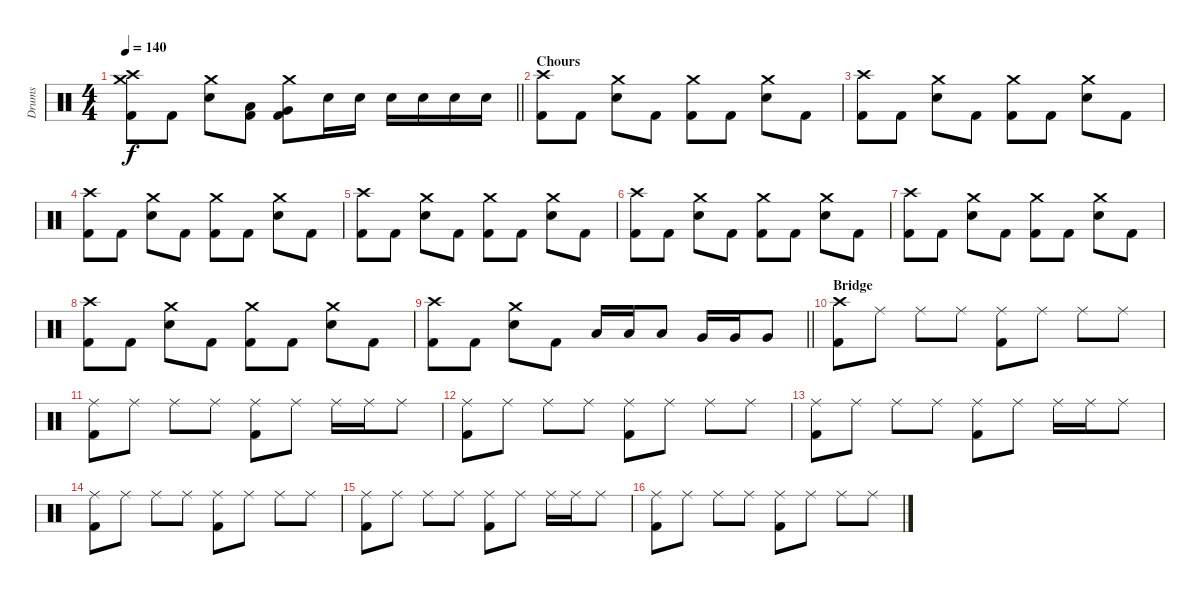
\track ("Drums" "Drums") {instrument percussion}
\staff {score}
\articulation defaults
\ts (4 4)
\tempo 140
\clef neutral
\barLineRight lightlight
\ks c
("Crash high (hit)" "Crash medium (hit)" "Kick (hit) 2").8{dy f} "Kick (hit) 2".8 ("Crash medium (hit)" "Snare (hit) 2").8 ("Low Tom (hit)" "Kick (hit) 2").8 ("Crash medium (hit)" "Very Low Tom (hit)" "Kick (hit) 2").8 "Snare (hit) 2".16 "Snare (hit) 2".16 "Snare (hit) 2".16 "Snare (hit) 2".16 "Snare (hit) 2".16 "Snare (hit) 2".16 |
\section ("" "Chours")
("Crash high (hit)" "Kick (hit) 2").8 "Kick (hit) 2".8 ("Crash medium (hit)" "Snare (hit) 2").8 "Kick (hit) 2".8 ("Crash medium (hit)" "Kick (hit) 2").8 "Kick (hit) 2".8 ("Crash medium (hit)" "Snare (hit) 2").8 "Kick (hit) 2".8 |
("Crash high (hit)" "Kick (hit) 2").8 "Kick (hit) 2".8 ("Crash medium (hit)" "Snare (hit) 2").8 "Kick (hit) 2".8 ("Crash medium (hit)" "Kick (hit) 2").8 "Kick (hit) 2".8 ("Crash medium (hit)" "Snare (hit) 2").8 "Kick (hit) 2".8 |
("Crash high (hit)" "Kick (hit) 2").8 "Kick (hit) 2".8 ("Crash medium (hit)" "Snare (hit) 2").8 "Kick (hit) 2".8 ("Crash medium (hit)" "Kick (hit) 2").8 "Kick (hit) 2".8 ("Crash medium (hit)" "Snare (hit) 2").8 "Kick (hit) 2".8 |
("Crash high (hit)" "Kick (hit) 2").8 "Kick (hit) 2".8 ("Crash medium (hit)" "Snare (hit) 2").8 "Kick (hit) 2".8 ("Crash medium (hit)" "Kick (hit) 2").8 "Kick (hit) 2".8 ("Crash medium (hit)" "Snare (hit) 2").8 "Kick (hit) 2".8 |
("Crash high (hit)" "Kick (hit) 2").8 "Kick (hit) 2".8 ("Crash medium (hit)" "Snare (hit) 2").8 "Kick (hit) 2".8 ("Crash medium (hit)" "Kick (hit) 2").8 "Kick (hit) 2".8 ("Crash medium (hit)" "Snare (hit) 2").8 "Kick (hit) 2".8 |
("Crash high (hit)" "Kick (hit) 2").8 "Kick (hit) 2".8 ("Crash medium (hit)" "Snare (hit) 2").8 "Kick (hit) 2".8 ("Crash medium (hit)" "Kick (hit) 2").8 "Kick (hit) 2".8 ("Crash medium (hit)" "Snare (hit) 2").8 "Kick (hit) 2".8 |
("Crash high (hit)" "Kick (hit) 2").8 "Kick (hit) 2".8 ("Crash medium (hit)" "Snare (hit) 2").8 "Kick (hit) 2".8 ("Crash medium (hit)" "Kick (hit) 2").8 "Kick (hit) 2".8 ("Crash medium (hit)" "Snare (hit) 2").8 "Kick (hit) 2".8 |
\barLineRight lightlight
("Crash high (hit)" "Kick (hit) 2").8 "Kick (hit) 2".8 ("Crash medium (hit)" "Snare (hit) 2").8 "Kick (hit) 2".8 "Low Tom (hit)".16 "Low Tom (hit)".16 "Low Tom (hit)".8 "Very Low Tom (hit)".16 "Very Low Tom (hit)".16 "Very Low Tom (hit)".8 |
\section ("" "Bridge")
("Crash high (hit)" "Kick (hit) 2").8 "Ride (middle)".8 "Ride (middle)".8 "Ride (middle)".8 ("Ride (middle)" "Kick (hit) 2").8 "Ride (middle)".8 "Ride (middle)".8 "Ride (middle)".8 |
("Ride (middle)" "Kick (hit) 2").8 "Ride (middle)".8 "Ride (middle)".8 "Ride (middle)".8 ("Ride (middle)" "Kick (hit) 2").8 "Ride (middle)".8 "Ride (middle)".16 "Ride (middle)".16 "Ride (middle)".8 |
("Ride (middle)" "Kick (hit) 2").8 "Ride (middle)".8 "Ride (middle)".8 "Ride (middle)".8 ("Ride (middle)" "Kick (hit) 2").8 "Ride (middle)".8 "Ride (middle)".8 "Ride (middle)".8 |
("Ride (middle)" "Kick (hit) 2").8 "Ride (middle)".8 "Ride (middle)".8 "Ride (middle)".8 ("Ride (middle)" "Kick (hit) 2").8 "Ride (middle)".8 "Ride (middle)".16 "Ride (middle)".16 "Ride (middle)".8 |
("Ride (middle)" "Kick (hit) 2").8 "Ride (middle)".8 "Ride (middle)".8 "Ride (middle)".8 ("Ride (middle)" "Kick (hit) 2").8 "Ride (middle)".8 "Ride (middle)".8 "Ride (middle)".8 |
("Ride (middle)" "Kick (hit) 2").8 "Ride (middle)".8 "Ride (middle)".8 "Ride (middle)".8 ("Ride (middle)" "Kick (hit) 2").8 "Ride (middle)".8 "Ride (middle)".16 "Ride (middle)".16 "Ride (middle)".8 |
("Ride (middle)" "Kick (hit) 2").8 "Ride (middle)".8 "Ride (middle)".8 "Ride (middle)".8 ("Ride (middle)" "Kick (hit) 2").8 "Ride (middle)".8 "Ride (middle)".8 "Ride (middle)".8
